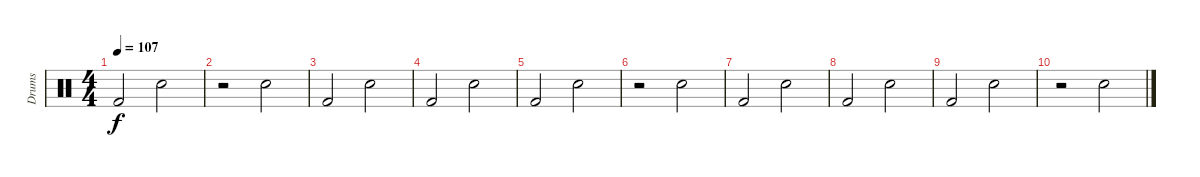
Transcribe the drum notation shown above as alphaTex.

\track ("Drums" "Drums") {instrument percussion}
\staff {score}
\articulation defaults
\ts (4 4)
\tempo 107
\clef neutral
\ks c "Kick (hit) 2".2{dy f} "Snare (hit) 2".2
|
r.2 "Snare (hit) 2".2 |
"Kick (hit) 2".2 "Snare (hit) 2".2 |
"Kick (hit) 2".2 "Snare (hit) 2".2 |
"Kick (hit) 2".2 "Snare (hit) 2".2 |
r.2 "Snare (hit) 2".2 |
"Kick (hit) 2".2 "Snare (hit) 2".2 |
"Kick (hit) 2".2 "Snare (hit) 2".2 |
"Kick (hit) 2".2 "Snare (hit) 2".2 |
r.2 "Snare (hit) 2".2
